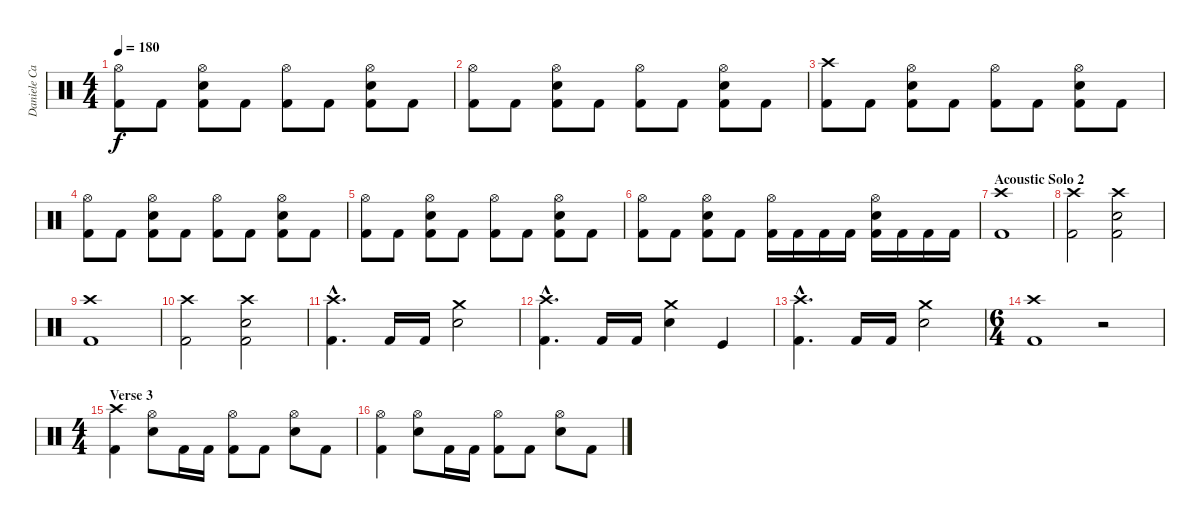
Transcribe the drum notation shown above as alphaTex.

\track ("Daniele Carbonera " "Daniele Ca") {instrument percussion}
\staff {score}
\articulation defaults
\ts (4 4)
\tempo 180
\clef neutral
\ks c
("Hi-Hat (open)" "Kick (hit) 2").8{dy f} "Kick (hit) 2".8 ("Hi-Hat (open)" "Electric Snare (hit)" "Kick (hit) 2").8 "Kick (hit) 2".8 ("Hi-Hat (open)" "Kick (hit) 2").8 "Kick (hit) 2".8 ("Hi-Hat (open)" "Electric Snare (hit)" "Kick (hit) 2").8 "Kick (hit) 2".8 |
("Hi-Hat (open)" "Kick (hit) 2").8 "Kick (hit) 2".8 ("Hi-Hat (open)" "Electric Snare (hit)" "Kick (hit) 2").8 "Kick (hit) 2".8 ("Hi-Hat (open)" "Kick (hit) 2").8 "Kick (hit) 2".8 ("Hi-Hat (open)" "Electric Snare (hit)" "Kick (hit) 2").8 "Kick (hit) 2".8 |
("Crash high (hit)" "Kick (hit) 2").8 "Kick (hit) 2".8 ("Hi-Hat (open)" "Electric Snare (hit)" "Kick (hit) 2").8 "Kick (hit) 2".8 ("Hi-Hat (open)" "Kick (hit) 2").8 "Kick (hit) 2".8 ("Hi-Hat (open)" "Electric Snare (hit)" "Kick (hit) 2").8 "Kick (hit) 2".8 |
("Hi-Hat (open)" "Kick (hit) 2").8 "Kick (hit) 2".8 ("Hi-Hat (open)" "Electric Snare (hit)" "Kick (hit) 2").8 "Kick (hit) 2".8 ("Hi-Hat (open)" "Kick (hit) 2").8 "Kick (hit) 2".8 ("Hi-Hat (open)" "Electric Snare (hit)" "Kick (hit) 2").8 "Kick (hit) 2".8 |
("Hi-Hat (open)" "Kick (hit) 2").8 "Kick (hit) 2".8 ("Hi-Hat (open)" "Electric Snare (hit)" "Kick (hit) 2").8 "Kick (hit) 2".8 ("Hi-Hat (open)" "Kick (hit) 2").8 "Kick (hit) 2".8 ("Hi-Hat (open)" "Electric Snare (hit)" "Kick (hit) 2").8 "Kick (hit) 2".8 |
("Hi-Hat (open)" "Kick (hit) 2").8 "Kick (hit) 2".8 ("Hi-Hat (open)" "Electric Snare (hit)" "Kick (hit) 2").8 "Kick (hit) 2".8 ("Hi-Hat (open)" "Kick (hit) 2").16 "Kick (hit) 2".16 "Kick (hit) 2".16 "Kick (hit) 2".16 ("Hi-Hat (open)" "Electric Snare (hit)" "Kick (hit) 2").16 "Kick (hit) 2".16 "Kick (hit) 2".16 "Kick (hit) 2".16 |
\section ("" "Acoustic Solo 2")
("Crash high (hit)" "Kick (hit) 2").1 |
("Crash high (hit)" "Kick (hit) 2").2 ("Crash high (hit)" "Electric Snare (hit)" "Kick (hit) 2").2 |
("Crash high (hit)" "Kick (hit) 2").1 |
("Crash high (hit)" "Kick (hit) 2").2 ("Crash high (hit)" "Electric Snare (hit)" "Kick (hit) 2").2 |
("Crash high (hit)"{hac} "Kick (hit) 2"{hac}).4{d} "Kick (hit) 2".16 "Kick (hit) 2".16 ("Crash medium (hit)" "Electric Snare (hit)").2 |
("Crash high (hit)"{hac} "Kick (hit) 2"{hac}).4{d} "Kick (hit) 2".16 "Kick (hit) 2".16 ("Crash medium (hit)" "Electric Snare (hit)").4 "Kick (hit)".4 |
("Crash high (hit)"{hac} "Kick (hit) 2"{hac}).4{d} "Kick (hit) 2".16 "Kick (hit) 2".16 ("Crash medium (hit)" "Electric Snare (hit)").2 |
\ts (6 4)
("Crash high (hit)" "Kick (hit) 2").1 r.2 |
\ts (4 4)
\section ("" "Verse 3")
("Crash high (hit)" "Kick (hit) 2").4 ("Hi-Hat (open)" "Electric Snare (hit)").8 "Kick (hit) 2".16 "Kick (hit) 2".16 ("Hi-Hat (open)" "Kick (hit) 2").8 "Kick (hit) 2".8 ("Hi-Hat (open)" "Electric Snare (hit)").8 "Kick (hit) 2".8 |
("Hi-Hat (open)" "Kick (hit) 2").4 ("Hi-Hat (open)" "Electric Snare (hit)").8 "Kick (hit) 2".16 "Kick (hit) 2".16 ("Hi-Hat (open)" "Kick (hit) 2").8 "Kick (hit) 2".8 ("Hi-Hat (open)" "Electric Snare (hit)").8 "Kick (hit) 2".8
